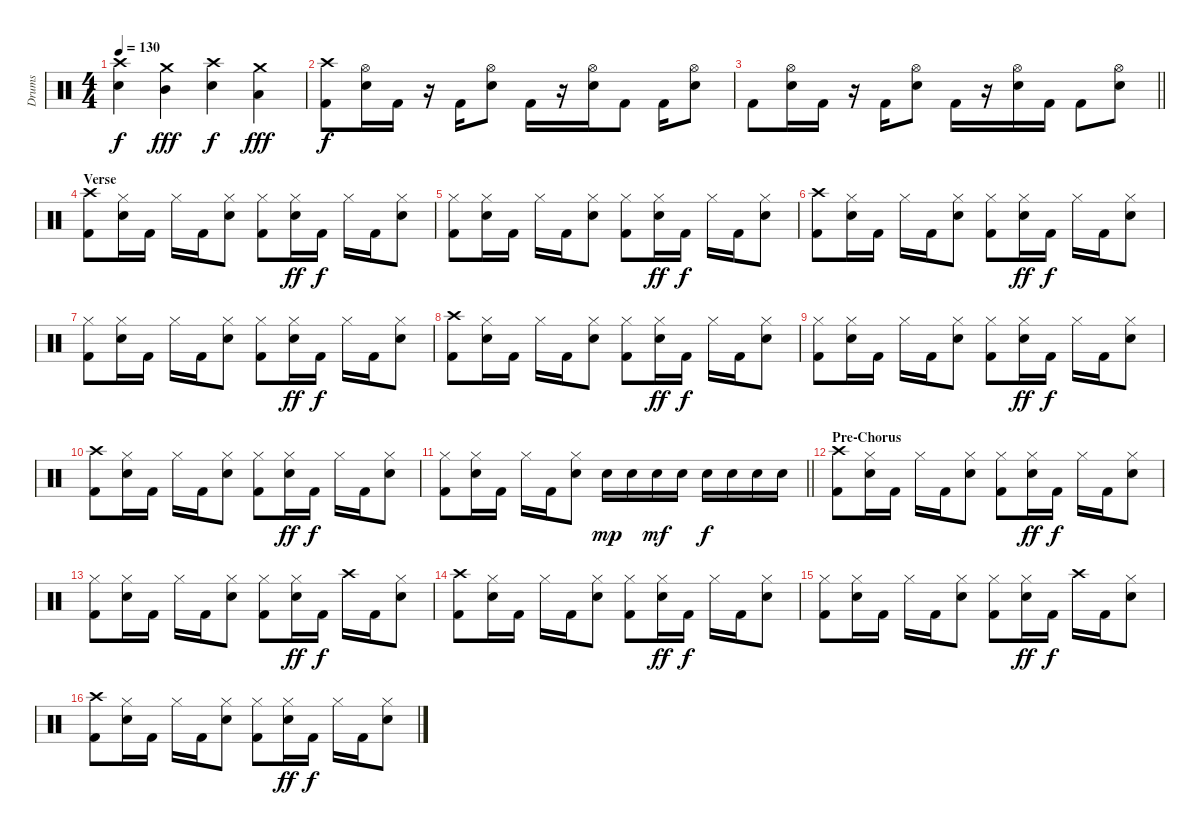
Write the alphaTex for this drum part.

\track ("Drums" "Drums") {instrument percussion}
\staff {score}
\articulation defaults
\ts (4 4)
\tempo 130
\clef neutral
\ks c
("Crash high (hit)" "Snare (hit) 2").4{dy f} ("Crash medium (hit)" "Mid Tom (hit)").4{dy fff} ("Crash high (hit)" "Snare (hit) 2").4{dy f} ("Crash medium (hit)" "Low Tom (hit)").4{dy fff} |
("Crash high (hit)" "Kick (hit) 2").8{dy f} ("Hi-Hat (open)" "Snare (hit) 2").16 "Kick (hit) 2".16 r.16 "Kick (hit) 2".16 ("Hi-Hat (open)" "Snare (hit) 2").8 "Kick (hit) 2".16 r.16 ("Hi-Hat (open)" "Snare (hit) 2").16 "Kick (hit) 2".8 "Kick (hit) 2".16 ("Hi-Hat (open)" "Snare (hit) 2").8 |
\barLineRight lightlight "Kick (hit) 2".8
("Hi-Hat (open)" "Snare (hit) 2").16 "Kick (hit) 2".16 r.16 "Kick (hit) 2".16 ("Hi-Hat (open)" "Snare (hit) 2").8 "Kick (hit) 2".16 r.16 ("Hi-Hat (open)" "Snare (hit) 2").16 "Kick (hit) 2".16 "Kick (hit) 2".8 ("Hi-Hat (open)" "Snare (hit) 2").8 |
\section ("" "Verse")
("Crash high (hit)" "Kick (hit) 2").8 ("Hi-Hat (closed)" "Snare (hit) 2").16 "Kick (hit) 2".16 "Hi-Hat (closed)".16 "Kick (hit) 2".16 ("Hi-Hat (closed)" "Snare (hit) 2").8 ("Hi-Hat (closed)" "Kick (hit) 2").8 ("Hi-Hat (closed)" "Snare (hit) 2").16{dy ff} "Kick (hit) 2".16{dy f} "Hi-Hat (closed)".16 "Kick (hit) 2".16 ("Hi-Hat (closed)" "Snare (hit) 2").8 |
("Hi-Hat (closed)" "Kick (hit) 2").8 ("Hi-Hat (closed)" "Snare (hit) 2").16 "Kick (hit) 2".16 "Hi-Hat (closed)".16 "Kick (hit) 2".16 ("Hi-Hat (closed)" "Snare (hit) 2").8 ("Hi-Hat (closed)" "Kick (hit) 2").8 ("Hi-Hat (closed)" "Snare (hit) 2").16{dy ff} "Kick (hit) 2".16{dy f} "Hi-Hat (closed)".16 "Kick (hit) 2".16 ("Hi-Hat (closed)" "Snare (hit) 2").8 |
("Crash high (hit)" "Kick (hit) 2").8 ("Hi-Hat (closed)" "Snare (hit) 2").16 "Kick (hit) 2".16 "Hi-Hat (closed)".16 "Kick (hit) 2".16 ("Hi-Hat (closed)" "Snare (hit) 2").8 ("Hi-Hat (closed)" "Kick (hit) 2").8 ("Hi-Hat (closed)" "Snare (hit) 2").16{dy ff} "Kick (hit) 2".16{dy f} "Hi-Hat (closed)".16 "Kick (hit) 2".16 ("Hi-Hat (closed)" "Snare (hit) 2").8 |
("Hi-Hat (closed)" "Kick (hit) 2").8 ("Hi-Hat (closed)" "Snare (hit) 2").16 "Kick (hit) 2".16 "Hi-Hat (closed)".16 "Kick (hit) 2".16 ("Hi-Hat (closed)" "Snare (hit) 2").8 ("Hi-Hat (closed)" "Kick (hit) 2").8 ("Hi-Hat (closed)" "Snare (hit) 2").16{dy ff} "Kick (hit) 2".16{dy f} "Hi-Hat (closed)".16 "Kick (hit) 2".16 ("Hi-Hat (closed)" "Snare (hit) 2").8 |
("Crash high (hit)" "Kick (hit) 2").8 ("Hi-Hat (closed)" "Snare (hit) 2").16 "Kick (hit) 2".16 "Hi-Hat (closed)".16 "Kick (hit) 2".16 ("Hi-Hat (closed)" "Snare (hit) 2").8 ("Hi-Hat (closed)" "Kick (hit) 2").8 ("Hi-Hat (closed)" "Snare (hit) 2").16{dy ff} "Kick (hit) 2".16{dy f} "Hi-Hat (closed)".16 "Kick (hit) 2".16 ("Hi-Hat (closed)" "Snare (hit) 2").8 |
("Hi-Hat (closed)" "Kick (hit) 2").8 ("Hi-Hat (closed)" "Snare (hit) 2").16 "Kick (hit) 2".16 "Hi-Hat (closed)".16 "Kick (hit) 2".16 ("Hi-Hat (closed)" "Snare (hit) 2").8 ("Hi-Hat (closed)" "Kick (hit) 2").8 ("Hi-Hat (closed)" "Snare (hit) 2").16{dy ff} "Kick (hit) 2".16{dy f} "Hi-Hat (closed)".16 "Kick (hit) 2".16 ("Hi-Hat (closed)" "Snare (hit) 2").8 |
("Crash high (hit)" "Kick (hit) 2").8 ("Hi-Hat (closed)" "Snare (hit) 2").16 "Kick (hit) 2".16 "Hi-Hat (closed)".16 "Kick (hit) 2".16 ("Hi-Hat (closed)" "Snare (hit) 2").8 ("Hi-Hat (closed)" "Kick (hit) 2").8 ("Hi-Hat (closed)" "Snare (hit) 2").16{dy ff} "Kick (hit) 2".16{dy f} "Hi-Hat (closed)".16 "Kick (hit) 2".16 ("Hi-Hat (closed)" "Snare (hit) 2").8 |
\barLineRight lightlight
("Hi-Hat (closed)" "Kick (hit) 2").8 ("Hi-Hat (closed)" "Snare (hit) 2").16 "Kick (hit) 2".16 "Hi-Hat (closed)".16 "Kick (hit) 2".16 ("Hi-Hat (closed)" "Snare (hit) 2").8 "Snare (hit) 2".16{dy mp} "Snare (hit) 2".16 "Snare (hit) 2".16{dy mf} "Snare (hit) 2".16 "Snare (hit) 2".16{dy f} "Snare (hit) 2".16 "Snare (hit) 2".16 "Snare (hit) 2".16 |
\section ("" "Pre-Chorus")
("Crash high (hit)" "Kick (hit) 2").8 ("Hi-Hat (closed)" "Snare (hit) 2").16 "Kick (hit) 2".16 "Hi-Hat (closed)".16 "Kick (hit) 2".16 ("Hi-Hat (closed)" "Snare (hit) 2").8 ("Hi-Hat (closed)" "Kick (hit) 2").8 ("Hi-Hat (closed)" "Snare (hit) 2").16{dy ff} "Kick (hit) 2".16{dy f} "Hi-Hat (closed)".16 "Kick (hit) 2".16 ("Hi-Hat (closed)" "Snare (hit) 2").8 |
("Hi-Hat (closed)" "Kick (hit) 2").8 ("Hi-Hat (closed)" "Snare (hit) 2").16 "Kick (hit) 2".16 "Hi-Hat (closed)".16 "Kick (hit) 2".16 ("Hi-Hat (closed)" "Snare (hit) 2").8 ("Hi-Hat (closed)" "Kick (hit) 2").8 ("Hi-Hat (closed)" "Snare (hit) 2").16{dy ff} "Kick (hit) 2".16{dy f} "Crash high (hit)".16 "Kick (hit) 2".16 ("Hi-Hat (closed)" "Snare (hit) 2").8 |
("Crash high (hit)" "Kick (hit) 2").8 ("Hi-Hat (closed)" "Snare (hit) 2").16 "Kick (hit) 2".16 "Hi-Hat (closed)".16 "Kick (hit) 2".16 ("Hi-Hat (closed)" "Snare (hit) 2").8 ("Hi-Hat (closed)" "Kick (hit) 2").8 ("Hi-Hat (closed)" "Snare (hit) 2").16{dy ff} "Kick (hit) 2".16{dy f} "Hi-Hat (closed)".16 "Kick (hit) 2".16 ("Hi-Hat (closed)" "Snare (hit) 2").8 |
("Hi-Hat (closed)" "Kick (hit) 2").8 ("Hi-Hat (closed)" "Snare (hit) 2").16 "Kick (hit) 2".16 "Hi-Hat (closed)".16 "Kick (hit) 2".16 ("Hi-Hat (closed)" "Snare (hit) 2").8 ("Hi-Hat (closed)" "Kick (hit) 2").8 ("Hi-Hat (closed)" "Snare (hit) 2").16{dy ff} "Kick (hit) 2".16{dy f} "Crash high (hit)".16 "Kick (hit) 2".16 ("Hi-Hat (closed)" "Snare (hit) 2").8 |
("Crash high (hit)" "Kick (hit) 2").8 ("Hi-Hat (closed)" "Snare (hit) 2").16 "Kick (hit) 2".16 "Hi-Hat (closed)".16 "Kick (hit) 2".16 ("Hi-Hat (closed)" "Snare (hit) 2").8 ("Hi-Hat (closed)" "Kick (hit) 2").8 ("Hi-Hat (closed)" "Snare (hit) 2").16{dy ff} "Kick (hit) 2".16{dy f} "Hi-Hat (closed)".16 "Kick (hit) 2".16 ("Hi-Hat (closed)" "Snare (hit) 2").8
